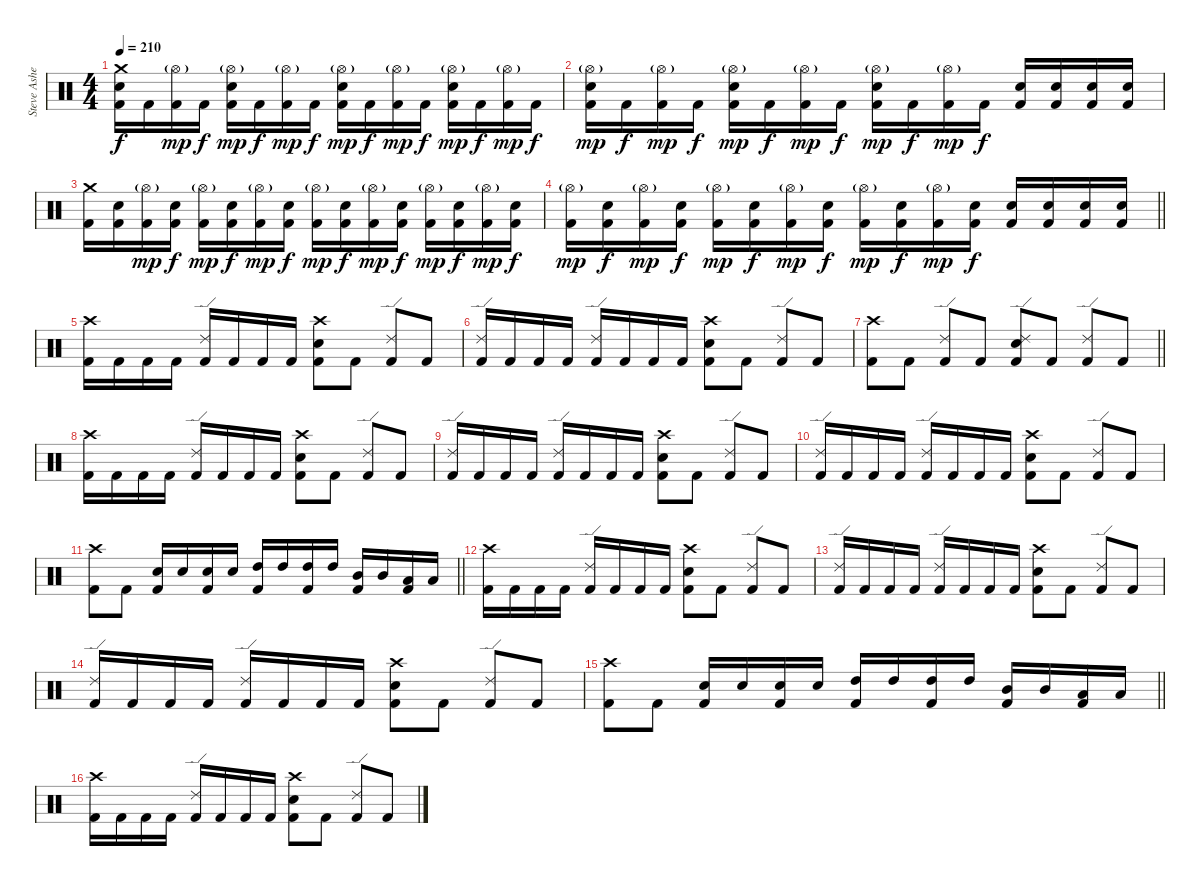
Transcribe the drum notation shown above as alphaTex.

\track ("Steve Asheim" "Steve Ashe") {instrument percussion}
\staff {score}
\articulation defaults
\ts (4 4)
\tempo 210
\clef neutral
\ks c
("Crash medium (hit)" "Electric Snare (hit)" "Kick (hit) 2").16{dy f} "Kick (hit) 2".16 ("Hi-Hat (open)"{g} "Kick (hit) 2").16{dy mp} "Kick (hit) 2".16{dy f} ("Hi-Hat (open)"{g} "Electric Snare (hit)" "Kick (hit) 2").16{dy mp} "Kick (hit) 2".16{dy f} ("Hi-Hat (open)"{g} "Kick (hit) 2").16{dy mp} "Kick (hit) 2".16{dy f} ("Hi-Hat (open)"{g} "Electric Snare (hit)" "Kick (hit) 2").16{dy mp} "Kick (hit) 2".16{dy f} ("Hi-Hat (open)"{g} "Kick (hit) 2").16{dy mp} "Kick (hit) 2".16{dy f} ("Hi-Hat (open)"{g} "Electric Snare (hit)" "Kick (hit) 2").16{dy mp} "Kick (hit) 2".16{dy f} ("Hi-Hat (open)"{g} "Kick (hit) 2").16{dy mp} "Kick (hit) 2".16{dy f} |
("Hi-Hat (open)"{g} "Electric Snare (hit)" "Kick (hit) 2").16{dy mp} "Kick (hit) 2".16{dy f} ("Hi-Hat (open)"{g} "Kick (hit) 2").16{dy mp} "Kick (hit) 2".16{dy f} ("Hi-Hat (open)"{g} "Electric Snare (hit)" "Kick (hit) 2").16{dy mp} "Kick (hit) 2".16{dy f} ("Hi-Hat (open)"{g} "Kick (hit) 2").16{dy mp} "Kick (hit) 2".16{dy f} ("Hi-Hat (open)"{g} "Electric Snare (hit)" "Kick (hit) 2").16{dy mp} "Kick (hit) 2".16{dy f} ("Hi-Hat (open)"{g} "Kick (hit) 2").16{dy mp} "Kick (hit) 2".16{dy f} ("Electric Snare (hit)" "Kick (hit) 2").16 ("Electric Snare (hit)" "Kick (hit) 2").16 ("Electric Snare (hit)" "Kick (hit) 2").16 ("Electric Snare (hit)" "Kick (hit) 2").16 |
("Crash medium (hit)" "Kick (hit) 2").16 ("Electric Snare (hit)" "Kick (hit) 2").16 ("Hi-Hat (open)"{g} "Kick (hit) 2").16{dy mp} ("Electric Snare (hit)" "Kick (hit) 2").16{dy f} ("Hi-Hat (open)"{g} "Kick (hit) 2").16{dy mp} ("Electric Snare (hit)" "Kick (hit) 2").16{dy f} ("Hi-Hat (open)"{g} "Kick (hit) 2").16{dy mp} ("Electric Snare (hit)" "Kick (hit) 2").16{dy f} ("Hi-Hat (open)"{g} "Kick (hit) 2").16{dy mp} ("Electric Snare (hit)" "Kick (hit) 2").16{dy f} ("Hi-Hat (open)"{g} "Kick (hit) 2").16{dy mp} ("Electric Snare (hit)" "Kick (hit) 2").16{dy f} ("Hi-Hat (open)"{g} "Kick (hit) 2").16{dy mp} ("Electric Snare (hit)" "Kick (hit) 2").16{dy f} ("Hi-Hat (open)"{g} "Kick (hit) 2").16{dy mp} ("Electric Snare (hit)" "Kick (hit) 2").16{dy f} |
\barLineRight lightlight
("Hi-Hat (open)"{g} "Kick (hit) 2").16{dy mp} ("Electric Snare (hit)" "Kick (hit) 2").16{dy f} ("Hi-Hat (open)"{g} "Kick (hit) 2").16{dy mp} ("Electric Snare (hit)" "Kick (hit) 2").16{dy f} ("Hi-Hat (open)"{g} "Kick (hit) 2").16{dy mp} ("Electric Snare (hit)" "Kick (hit) 2").16{dy f} ("Hi-Hat (open)"{g} "Kick (hit) 2").16{dy mp} ("Electric Snare (hit)" "Kick (hit) 2").16{dy f} ("Hi-Hat (open)"{g} "Kick (hit) 2").16{dy mp} ("Electric Snare (hit)" "Kick (hit) 2").16{dy f} ("Hi-Hat (open)"{g} "Kick (hit) 2").16{dy mp} ("Electric Snare (hit)" "Kick (hit) 2").16{dy f} ("Electric Snare (hit)" "Kick (hit) 2").16 ("Electric Snare (hit)" "Kick (hit) 2").16 ("Electric Snare (hit)" "Kick (hit) 2").16 ("Electric Snare (hit)" "Kick (hit) 2").16 |
("Crash high (hit)" "Kick (hit) 2").16 "Kick (hit) 2".16 "Kick (hit) 2".16 "Kick (hit) 2".16 ("Ride (edge) 2" "Kick (hit) 2").16 "Kick (hit) 2".16 "Kick (hit) 2".16 "Kick (hit) 2".16 ("Crash high (hit)" "Electric Snare (hit)" "Kick (hit) 2").8 "Kick (hit) 2".8 ("Ride (edge) 2" "Kick (hit) 2").8 "Kick (hit) 2".8 |
("Ride (edge) 2" "Kick (hit) 2").16 "Kick (hit) 2".16 "Kick (hit) 2".16 "Kick (hit) 2".16 ("Ride (edge) 2" "Kick (hit) 2").16 "Kick (hit) 2".16 "Kick (hit) 2".16 "Kick (hit) 2".16 ("Crash high (hit)" "Electric Snare (hit)" "Kick (hit) 2").8 "Kick (hit) 2".8 ("Ride (edge) 2" "Kick (hit) 2").8 "Kick (hit) 2".8 |
\barLineRight lightlight
("Crash high (hit)" "Kick (hit) 2").8 "Kick (hit) 2".8 ("Ride (edge) 2" "Kick (hit) 2").8 "Kick (hit) 2".8 ("Ride (edge) 2" "Electric Snare (hit)" "Kick (hit) 2").8 "Kick (hit) 2".8 ("Ride (edge) 2" "Kick (hit) 2").8 "Kick (hit) 2".8 |
("Crash high (hit)" "Kick (hit) 2").16 "Kick (hit) 2".16 "Kick (hit) 2".16 "Kick (hit) 2".16 ("Ride (edge) 2" "Kick (hit) 2").16 "Kick (hit) 2".16 "Kick (hit) 2".16 "Kick (hit) 2".16 ("Crash high (hit)" "Electric Snare (hit)" "Kick (hit) 2").8 "Kick (hit) 2".8 ("Ride (edge) 2" "Kick (hit) 2").8 "Kick (hit) 2".8 |
("Ride (edge) 2" "Kick (hit) 2").16 "Kick (hit) 2".16 "Kick (hit) 2".16 "Kick (hit) 2".16 ("Ride (edge) 2" "Kick (hit) 2").16 "Kick (hit) 2".16 "Kick (hit) 2".16 "Kick (hit) 2".16 ("Crash high (hit)" "Electric Snare (hit)" "Kick (hit) 2").8 "Kick (hit) 2".8 ("Ride (edge) 2" "Kick (hit) 2").8 "Kick (hit) 2".8 |
("Ride (edge) 2" "Kick (hit) 2").16 "Kick (hit) 2".16 "Kick (hit) 2".16 "Kick (hit) 2".16 ("Ride (edge) 2" "Kick (hit) 2").16 "Kick (hit) 2".16 "Kick (hit) 2".16 "Kick (hit) 2".16 ("Crash high (hit)" "Electric Snare (hit)" "Kick (hit) 2").8 "Kick (hit) 2".8 ("Ride (edge) 2" "Kick (hit) 2").8 "Kick (hit) 2".8 |
\barLineRight lightlight
("Crash high (hit)" "Kick (hit) 2").8 "Kick (hit) 2".8 ("Electric Snare (hit)" "Kick (hit) 2").16 "Electric Snare (hit)".16 ("Electric Snare (hit)" "Kick (hit) 2").16 "Electric Snare (hit)".16 ("High Tom (hit)" "Kick (hit) 2").16 "High Tom (hit)".16 ("High Tom (hit)" "Kick (hit) 2").16 "High Tom (hit)".16 ("Mid Tom (hit)" "Kick (hit) 2").16 "Mid Tom (hit)".16 ("Low Tom (hit)" "Kick (hit) 2").16 "Low Tom (hit)".16 |
("Crash high (hit)" "Kick (hit) 2").16 "Kick (hit) 2".16 "Kick (hit) 2".16 "Kick (hit) 2".16 ("Ride (edge) 2" "Kick (hit) 2").16 "Kick (hit) 2".16 "Kick (hit) 2".16 "Kick (hit) 2".16 ("Crash high (hit)" "Electric Snare (hit)" "Kick (hit) 2").8 "Kick (hit) 2".8 ("Ride (edge) 2" "Kick (hit) 2").8 "Kick (hit) 2".8 |
("Ride (edge) 2" "Kick (hit) 2").16 "Kick (hit) 2".16 "Kick (hit) 2".16 "Kick (hit) 2".16 ("Ride (edge) 2" "Kick (hit) 2").16 "Kick (hit) 2".16 "Kick (hit) 2".16 "Kick (hit) 2".16 ("Crash high (hit)" "Electric Snare (hit)" "Kick (hit) 2").8 "Kick (hit) 2".8 ("Ride (edge) 2" "Kick (hit) 2").8 "Kick (hit) 2".8 |
("Ride (edge) 2" "Kick (hit) 2").16 "Kick (hit) 2".16 "Kick (hit) 2".16 "Kick (hit) 2".16 ("Ride (edge) 2" "Kick (hit) 2").16 "Kick (hit) 2".16 "Kick (hit) 2".16 "Kick (hit) 2".16 ("Crash high (hit)" "Electric Snare (hit)" "Kick (hit) 2").8 "Kick (hit) 2".8 ("Ride (edge) 2" "Kick (hit) 2").8 "Kick (hit) 2".8 |
\barLineRight lightlight
("Crash high (hit)" "Kick (hit) 2").8 "Kick (hit) 2".8 ("Electric Snare (hit)" "Kick (hit) 2").16 "Electric Snare (hit)".16 ("Electric Snare (hit)" "Kick (hit) 2").16 "Electric Snare (hit)".16 ("High Tom (hit)" "Kick (hit) 2").16 "High Tom (hit)".16 ("High Tom (hit)" "Kick (hit) 2").16 "High Tom (hit)".16 ("Mid Tom (hit)" "Kick (hit) 2").16 "Mid Tom (hit)".16 ("Low Tom (hit)" "Kick (hit) 2").16 "Low Tom (hit)".16 |
("Crash high (hit)" "Kick (hit) 2").16 "Kick (hit) 2".16 "Kick (hit) 2".16 "Kick (hit) 2".16 ("Ride (edge) 2" "Kick (hit) 2").16 "Kick (hit) 2".16 "Kick (hit) 2".16 "Kick (hit) 2".16 ("Crash high (hit)" "Electric Snare (hit)" "Kick (hit) 2").8 "Kick (hit) 2".8 ("Ride (edge) 2" "Kick (hit) 2").8 "Kick (hit) 2".8
